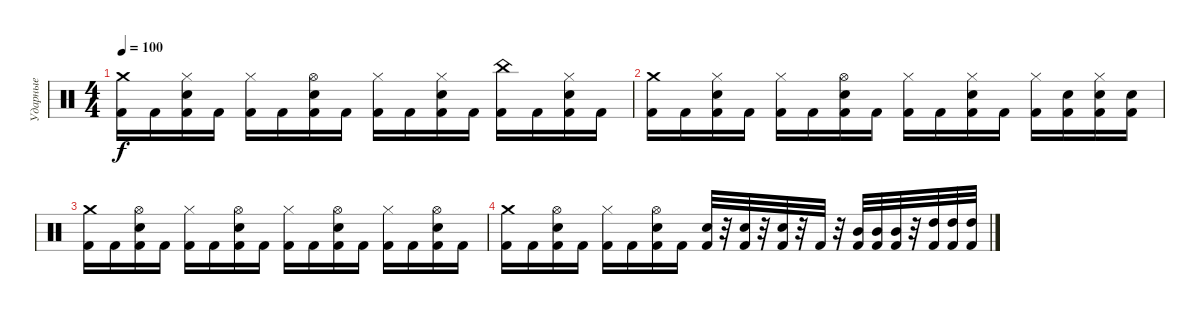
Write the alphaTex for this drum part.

\track ("Ударные" "Ударные") {instrument percussion}
\staff {score}
\articulation defaults
\ts (4 4)
\tempo 100
\clef neutral
\ks c
("Crash medium (hit)" "Kick (hit) 2").16{dy f} "Kick (hit) 2".16 ("Hi-Hat (closed)" "Snare (hit) 2" "Kick (hit) 2").16 "Kick (hit) 2".16 ("Hi-Hat (closed)" "Kick (hit) 2").16 "Kick (hit) 2".16 ("Hi-Hat (open)" "Snare (hit) 2" "Kick (hit) 2").16 "Kick (hit) 2".16 ("Hi-Hat (closed)" "Kick (hit) 2").16 "Kick (hit) 2".16 ("Hi-Hat (closed)" "Snare (hit) 2" "Kick (hit) 2").16 "Kick (hit) 2".16 ("China (hit)" "Kick (hit) 2").16 "Kick (hit) 2".16 ("Hi-Hat (closed)" "Snare (hit) 2" "Kick (hit) 2").16 "Kick (hit) 2".16 |
("Crash medium (hit)" "Kick (hit) 2").16 "Kick (hit) 2".16 ("Hi-Hat (closed)" "Snare (hit) 2" "Kick (hit) 2").16 "Kick (hit) 2".16 ("Hi-Hat (closed)" "Kick (hit) 2").16 "Kick (hit) 2".16 ("Hi-Hat (open)" "Snare (hit) 2" "Kick (hit) 2").16 "Kick (hit) 2".16 ("Hi-Hat (closed)" "Kick (hit) 2").16 "Kick (hit) 2".16 ("Hi-Hat (closed)" "Snare (hit) 2" "Kick (hit) 2").16 "Kick (hit) 2".16 ("Hi-Hat (closed)" "Kick (hit) 2").16 ("Snare (hit) 2" "Kick (hit) 2").16 ("Hi-Hat (closed)" "Snare (hit) 2" "Kick (hit) 2").16 ("Snare (hit) 2" "Kick (hit) 2").16 |
("Crash medium (hit)" "Kick (hit) 2").16 "Kick (hit) 2".16 ("Hi-Hat (open)" "Snare (hit) 2" "Kick (hit) 2").16 "Kick (hit) 2".16 ("Hi-Hat (closed)" "Kick (hit) 2").16 "Kick (hit) 2".16 ("Hi-Hat (open)" "Snare (hit) 2" "Kick (hit) 2").16 "Kick (hit) 2".16 ("Hi-Hat (closed)" "Kick (hit) 2").16 "Kick (hit) 2".16 ("Hi-Hat (open)" "Snare (hit) 2" "Kick (hit) 2").16 "Kick (hit) 2".16 ("Hi-Hat (closed)" "Kick (hit) 2").16 "Kick (hit) 2".16 ("Hi-Hat (open)" "Snare (hit) 2" "Kick (hit) 2").16 "Kick (hit) 2".16 |
("Crash medium (hit)" "Kick (hit) 2").16 "Kick (hit) 2".16 ("Hi-Hat (open)" "Snare (hit) 2" "Kick (hit) 2").16 "Kick (hit) 2".16 ("Hi-Hat (closed)" "Kick (hit) 2").16 "Kick (hit) 2".16 ("Hi-Hat (open)" "Snare (hit) 2" "Kick (hit) 2").16 "Kick (hit) 2".16 ("Snare (hit) 2" "Kick (hit) 2").32 r.32 ("Snare (hit) 2" "Kick (hit) 2").32 r.32 ("Snare (hit) 2" "Kick (hit) 2").32 r.32 "Kick (hit) 2".32 r.32 ("Mid Tom (hit)" "Kick (hit) 2").32 ("Mid Tom (hit)" "Kick (hit) 2").32 ("Mid Tom (hit)" "Kick (hit) 2").32 r.32 ("High Tom (hit)" "Kick (hit) 2").32 ("High Tom (hit)" "Kick (hit) 2").32 ("High Tom (hit)" "Kick (hit) 2").32
